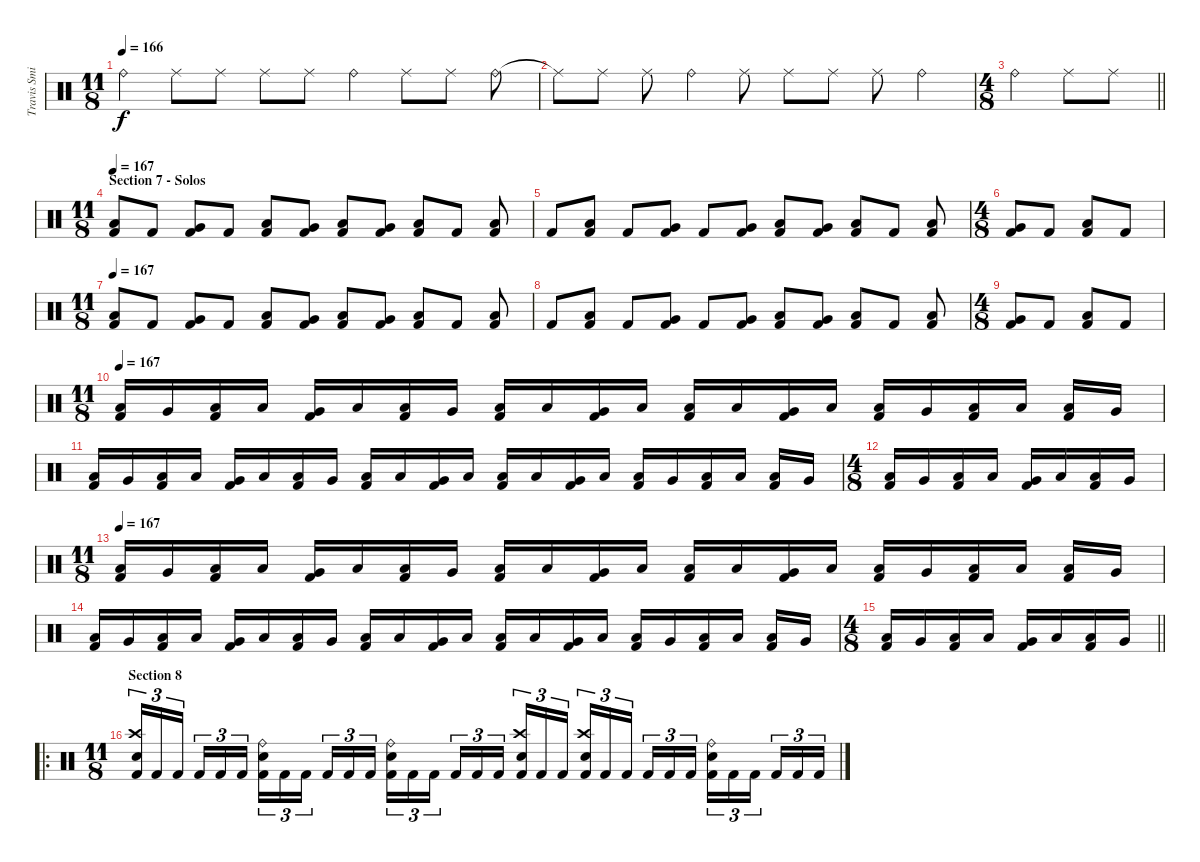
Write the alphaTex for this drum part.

\track ("Travis Smith" "Travis Smi") {instrument percussion}
\staff {score}
\articulation defaults
\ts (11 8)
\tempo 166
\clef neutral
\ks c "Ride (bell)".4{dy f} "Ride (middle)".8 "Ride (middle)".8 "Ride (middle)".8 "Ride (middle)".8 "Ride (bell)".4 "Ride (middle)".8 "Ride (middle)".8 "Ride (bell)".8
|
"Ride (middle)"{t}.8 "Ride (middle)".8 "Ride (middle)".8 "Ride (bell)".4 "Ride (middle)".8 "Ride (middle)".8 "Ride (middle)".8 "Ride (middle)".8 "Ride (bell)".4 |
\ts (4 8)
\barLineRight lightlight "Ride (bell)".4 "Ride (middle)".8 "Ride (middle)".8
|
\ts (11 8)
\section ("" "Section 7 - Solos")
\tempo 167
("Kick (hit) 2" "Low Tom (hit)").8 "Kick (hit) 2".8 ("Kick (hit) 2" "Very Low Tom (hit)").8 "Kick (hit) 2".8 ("Kick (hit) 2" "Low Tom (hit)").8 ("Kick (hit) 2" "Very Low Tom (hit)").8 ("Kick (hit) 2" "Low Floor Tom (hit)").8 ("Kick (hit) 2" "Very Low Tom (hit)").8 ("Kick (hit) 2" "Low Floor Tom (hit)").8 "Kick (hit) 2".8 ("Kick (hit) 2" "Low Tom (hit)").8 |
"Kick (hit) 2".8 ("Kick (hit) 2" "Low Floor Tom (hit)").8 "Kick (hit) 2".8 ("Kick (hit) 2" "Very Low Tom (hit)").8 "Kick (hit) 2".8 ("Kick (hit) 2" "Very Low Tom (hit)").8 ("Kick (hit) 2" "Low Floor Tom (hit)").8 ("Kick (hit) 2" "Very Low Tom (hit)").8 ("Kick (hit) 2" "Low Floor Tom (hit)").8 "Kick (hit) 2".8 ("Kick (hit) 2" "Low Tom (hit)").8 |
\ts (4 8)
("Kick (hit) 2" "Very Low Tom (hit)").8 "Kick (hit) 2".8 ("Kick (hit) 2" "Low Floor Tom (hit)").8 "Kick (hit) 2".8 |
\ts (11 8)
\tempo 167
("Kick (hit) 2" "Low Tom (hit)").8 "Kick (hit) 2".8 ("Kick (hit) 2" "Very Low Tom (hit)").8 "Kick (hit) 2".8 ("Kick (hit) 2" "Low Tom (hit)").8 ("Kick (hit) 2" "Very Low Tom (hit)").8 ("Kick (hit) 2" "Low Floor Tom (hit)").8 ("Kick (hit) 2" "Very Low Tom (hit)").8 ("Kick (hit) 2" "Low Floor Tom (hit)").8 "Kick (hit) 2".8 ("Kick (hit) 2" "Low Tom (hit)").8 |
"Kick (hit) 2".8 ("Kick (hit) 2" "Low Floor Tom (hit)").8 "Kick (hit) 2".8 ("Kick (hit) 2" "Very Low Tom (hit)").8 "Kick (hit) 2".8 ("Kick (hit) 2" "Very Low Tom (hit)").8 ("Kick (hit) 2" "Low Floor Tom (hit)").8 ("Kick (hit) 2" "Very Low Tom (hit)").8 ("Kick (hit) 2" "Low Floor Tom (hit)").8 "Kick (hit) 2".8 ("Kick (hit) 2" "Low Tom (hit)").8 |
\ts (4 8)
("Kick (hit) 2" "Very Low Tom (hit)").8 "Kick (hit) 2".8 ("Kick (hit) 2" "Low Floor Tom (hit)").8 "Kick (hit) 2".8 |
\ts (11 8)
\tempo 167
("Kick (hit) 2" "Low Tom (hit)").16 "Very Low Tom (hit)".16 ("Kick (hit) 2" "Low Floor Tom (hit)").16 "Low Tom (hit)".16 ("Kick (hit) 2" "Very Low Tom (hit)").16 "Low Floor Tom (hit)".16 ("Kick (hit) 2" "Low Tom (hit)").16 "Very Low Tom (hit)".16 ("Kick (hit) 2" "Low Tom (hit)").16 "Low Floor Tom (hit)".16 ("Kick (hit) 2" "Very Low Tom (hit)").16 "Low Tom (hit)".16 ("Kick (hit) 2" "Low Floor Tom (hit)").16 "Low Tom (hit)".16 ("Kick (hit) 2" "Very Low Tom (hit)").16 "Low Tom (hit)".16 ("Kick (hit) 2" "Low Floor Tom (hit)").16 "Very Low Tom (hit)".16 ("Kick (hit) 2" "Low Tom (hit)").16 "Low Floor Tom (hit)".16 ("Kick (hit) 2" "Low Tom (hit)").16 "Very Low Tom (hit)".16 |
("Kick (hit) 2" "Low Tom (hit)").16 "Very Low Tom (hit)".16 ("Kick (hit) 2" "Low Floor Tom (hit)").16 "Low Tom (hit)".16 ("Kick (hit) 2" "Very Low Tom (hit)").16 "Low Floor Tom (hit)".16 ("Kick (hit) 2" "Low Tom (hit)").16 "Very Low Tom (hit)".16 ("Kick (hit) 2" "Low Tom (hit)").16 "Low Floor Tom (hit)".16 ("Kick (hit) 2" "Very Low Tom (hit)").16 "Low Tom (hit)".16 ("Kick (hit) 2" "Low Floor Tom (hit)").16 "Low Tom (hit)".16 ("Kick (hit) 2" "Very Low Tom (hit)").16 "Low Tom (hit)".16 ("Kick (hit) 2" "Low Floor Tom (hit)").16 "Very Low Tom (hit)".16 ("Kick (hit) 2" "Low Tom (hit)").16 "Low Floor Tom (hit)".16 ("Kick (hit) 2" "Low Tom (hit)").16 "Very Low Tom (hit)".16 |
\ts (4 8)
("Kick (hit) 2" "Low Tom (hit)").16 "Very Low Tom (hit)".16 ("Kick (hit) 2" "Low Floor Tom (hit)").16 "Low Tom (hit)".16 ("Kick (hit) 2" "Very Low Tom (hit)").16 "Low Floor Tom (hit)".16 ("Kick (hit) 2" "Low Tom (hit)").16 "Very Low Tom (hit)".16 |
\ts (11 8)
\tempo 167
("Kick (hit) 2" "Low Tom (hit)").16 "Very Low Tom (hit)".16 ("Kick (hit) 2" "Low Floor Tom (hit)").16 "Low Tom (hit)".16 ("Kick (hit) 2" "Very Low Tom (hit)").16 "Low Floor Tom (hit)".16 ("Kick (hit) 2" "Low Tom (hit)").16 "Very Low Tom (hit)".16 ("Kick (hit) 2" "Low Tom (hit)").16 "Low Floor Tom (hit)".16 ("Kick (hit) 2" "Very Low Tom (hit)").16 "Low Tom (hit)".16 ("Kick (hit) 2" "Low Floor Tom (hit)").16 "Low Tom (hit)".16 ("Kick (hit) 2" "Very Low Tom (hit)").16 "Low Tom (hit)".16 ("Kick (hit) 2" "Low Floor Tom (hit)").16 "Very Low Tom (hit)".16 ("Kick (hit) 2" "Low Tom (hit)").16 "Low Floor Tom (hit)".16 ("Kick (hit) 2" "Low Tom (hit)").16 "Very Low Tom (hit)".16 |
("Kick (hit) 2" "Low Tom (hit)").16 "Very Low Tom (hit)".16 ("Kick (hit) 2" "Low Floor Tom (hit)").16 "Low Tom (hit)".16 ("Kick (hit) 2" "Very Low Tom (hit)").16 "Low Floor Tom (hit)".16 ("Kick (hit) 2" "Low Tom (hit)").16 "Very Low Tom (hit)".16 ("Kick (hit) 2" "Low Tom (hit)").16 "Low Floor Tom (hit)".16 ("Kick (hit) 2" "Very Low Tom (hit)").16 "Low Tom (hit)".16 ("Kick (hit) 2" "Low Floor Tom (hit)").16 "Low Tom (hit)".16 ("Kick (hit) 2" "Very Low Tom (hit)").16 "Low Tom (hit)".16 ("Kick (hit) 2" "Low Floor Tom (hit)").16 "Very Low Tom (hit)".16 ("Kick (hit) 2" "Low Tom (hit)").16 "Low Floor Tom (hit)".16 ("Kick (hit) 2" "Low Tom (hit)").16 "Very Low Tom (hit)".16 |
\ts (4 8)
\barLineRight lightlight
("Kick (hit) 2" "Low Tom (hit)").16 "Very Low Tom (hit)".16 ("Kick (hit) 2" "Low Floor Tom (hit)").16 "Low Tom (hit)".16 ("Kick (hit) 2" "Very Low Tom (hit)").16 "Low Floor Tom (hit)".16 ("Kick (hit) 2" "Low Tom (hit)").16 "Very Low Tom (hit)".16 |
\ro
\ts (11 8)
\section ("" "Section 8")
("Crash high (hit)" "Snare (hit) 2" "Kick (hit) 2").16{tu (3 2)} "Kick (hit) 2".16{tu (3 2)} "Kick (hit) 2".16{tu (3 2)} "Kick (hit) 2".16{tu (3 2)} "Kick (hit) 2".16{tu (3 2)} "Kick (hit) 2".16{tu (3 2)} ("Ride (bell)" "Snare (hit) 2" "Kick (hit) 2").16{tu (3 2)} "Kick (hit) 2".16{tu (3 2)} "Kick (hit) 2".16{tu (3 2)} "Kick (hit) 2".16{tu (3 2)} "Kick (hit) 2".16{tu (3 2)} "Kick (hit) 2".16{tu (3 2)} ("Ride (bell)" "Snare (hit) 2" "Kick (hit) 2").16{tu (3 2)} "Kick (hit) 2".16{tu (3 2)} "Kick (hit) 2".16{tu (3 2)} "Kick (hit) 2".16{tu (3 2)} "Kick (hit) 2".16{tu (3 2)} "Kick (hit) 2".16{tu (3 2)} ("Crash high (hit)" "Snare (hit) 2" "Kick (hit) 2").16{tu (3 2)} "Kick (hit) 2".16{tu (3 2)} "Kick (hit) 2".16{tu (3 2)} ("Crash high (hit)" "Snare (hit) 2" "Kick (hit) 2").16{tu (3 2)} "Kick (hit) 2".16{tu (3 2)} "Kick (hit) 2".16{tu (3 2)} "Kick (hit) 2".16{tu (3 2)} "Kick (hit) 2".16{tu (3 2)} "Kick (hit) 2".16{tu (3 2)} ("Ride (bell)" "Snare (hit) 2" "Kick (hit) 2").16{tu (3 2)} "Kick (hit) 2".16{tu (3 2)} "Kick (hit) 2".16{tu (3 2)} "Kick (hit) 2".16{tu (3 2)} "Kick (hit) 2".16{tu (3 2)} "Kick (hit) 2".16{tu (3 2)}
